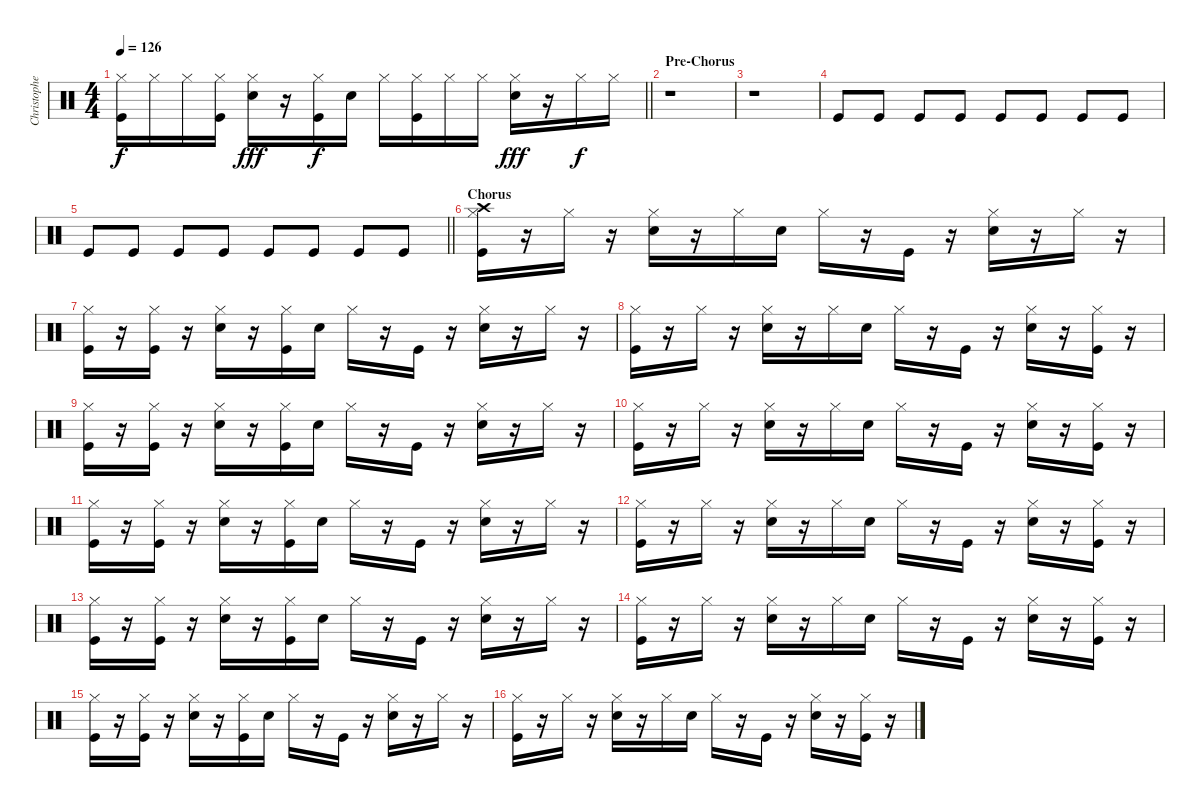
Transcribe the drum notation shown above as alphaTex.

\track ("Christopher - Drums" "Christophe") {instrument percussion}
\staff {score}
\articulation defaults
\ts (4 4)
\tempo 126
\clef neutral
\barLineRight lightlight
\ks c
("Hi-Hat (closed)" "Kick (hit)").16{dy f} "Hi-Hat (closed)".16 "Hi-Hat (closed)".16 ("Hi-Hat (closed)" "Kick (hit)").16 ("Hi-Hat (closed)" "Snare (hit) 2").16{dy fff} r.16 ("Hi-Hat (closed)" "Kick (hit)").16{dy f} "Snare (hit) 2".16 "Hi-Hat (closed)".16 ("Hi-Hat (closed)" "Kick (hit)").16 "Hi-Hat (closed)".16 "Hi-Hat (closed)".16 ("Hi-Hat (closed)" "Snare (hit) 2").16{dy fff} r.16 "Hi-Hat (closed)".16{dy f} "Hi-Hat (closed)".16 |
\section ("" "Pre-Chorus")
r.1 |
r.1 |
"Kick (hit)".8 "Kick (hit)".8 "Kick (hit)".8 "Kick (hit)".8 "Kick (hit)".8 "Kick (hit)".8 "Kick (hit)".8 "Kick (hit)".8 |
\barLineRight lightlight "Kick (hit)".8 "Kick (hit)".8 "Kick (hit)".8 "Kick (hit)".8 "Kick (hit)".8 "Kick (hit)".8 "Kick (hit)".8 "Kick (hit)".8
|
\section ("" "Chorus")
("Crash high (hit)" "Hi-Hat (closed)" "Kick (hit)").16 r.16 "Hi-Hat (closed)".16 r.16 ("Hi-Hat (closed)" "Snare (hit) 2").16 r.16 "Hi-Hat (closed)".16 "Snare (hit) 2".16 "Hi-Hat (closed)".16 r.16 "Kick (hit)".16 r.16 ("Hi-Hat (closed)" "Snare (hit) 2").16 r.16 "Hi-Hat (closed)".16 r.16 |
("Hi-Hat (closed)" "Kick (hit)").16 r.16 ("Hi-Hat (closed)" "Kick (hit)").16 r.16 ("Hi-Hat (closed)" "Snare (hit) 2").16 r.16 ("Hi-Hat (closed)" "Kick (hit)").16 "Snare (hit) 2".16 "Hi-Hat (closed)".16 r.16 "Kick (hit)".16 r.16 ("Hi-Hat (closed)" "Snare (hit) 2").16 r.16 "Hi-Hat (closed)".16 r.16 |
("Hi-Hat (closed)" "Kick (hit)").16 r.16 "Hi-Hat (closed)".16 r.16 ("Hi-Hat (closed)" "Snare (hit) 2").16 r.16 "Hi-Hat (closed)".16 "Snare (hit) 2".16 "Hi-Hat (closed)".16 r.16 "Kick (hit)".16 r.16 ("Hi-Hat (closed)" "Snare (hit) 2").16 r.16 ("Hi-Hat (closed)" "Kick (hit)").16 r.16 |
("Hi-Hat (closed)" "Kick (hit)").16 r.16 ("Hi-Hat (closed)" "Kick (hit)").16 r.16 ("Hi-Hat (closed)" "Snare (hit) 2").16 r.16 ("Hi-Hat (closed)" "Kick (hit)").16 "Snare (hit) 2".16 "Hi-Hat (closed)".16 r.16 "Kick (hit)".16 r.16 ("Hi-Hat (closed)" "Snare (hit) 2").16 r.16 "Hi-Hat (closed)".16 r.16 |
("Hi-Hat (closed)" "Kick (hit)").16 r.16 "Hi-Hat (closed)".16 r.16 ("Hi-Hat (closed)" "Snare (hit) 2").16 r.16 "Hi-Hat (closed)".16 "Snare (hit) 2".16 "Hi-Hat (closed)".16 r.16 "Kick (hit)".16 r.16 ("Hi-Hat (closed)" "Snare (hit) 2").16 r.16 ("Hi-Hat (closed)" "Kick (hit)").16 r.16 |
("Hi-Hat (closed)" "Kick (hit)").16 r.16 ("Hi-Hat (closed)" "Kick (hit)").16 r.16 ("Hi-Hat (closed)" "Snare (hit) 2").16 r.16 ("Hi-Hat (closed)" "Kick (hit)").16 "Snare (hit) 2".16 "Hi-Hat (closed)".16 r.16 "Kick (hit)".16 r.16 ("Hi-Hat (closed)" "Snare (hit) 2").16 r.16 "Hi-Hat (closed)".16 r.16 |
("Hi-Hat (closed)" "Kick (hit)").16 r.16 "Hi-Hat (closed)".16 r.16 ("Hi-Hat (closed)" "Snare (hit) 2").16 r.16 "Hi-Hat (closed)".16 "Snare (hit) 2".16 "Hi-Hat (closed)".16 r.16 "Kick (hit)".16 r.16 ("Hi-Hat (closed)" "Snare (hit) 2").16 r.16 ("Hi-Hat (closed)" "Kick (hit)").16 r.16 |
("Hi-Hat (closed)" "Kick (hit)").16 r.16 ("Hi-Hat (closed)" "Kick (hit)").16 r.16 ("Hi-Hat (closed)" "Snare (hit) 2").16 r.16 ("Hi-Hat (closed)" "Kick (hit)").16 "Snare (hit) 2".16 "Hi-Hat (closed)".16 r.16 "Kick (hit)".16 r.16 ("Hi-Hat (closed)" "Snare (hit) 2").16 r.16 "Hi-Hat (closed)".16 r.16 |
("Hi-Hat (closed)" "Kick (hit)").16 r.16 "Hi-Hat (closed)".16 r.16 ("Hi-Hat (closed)" "Snare (hit) 2").16 r.16 "Hi-Hat (closed)".16 "Snare (hit) 2".16 "Hi-Hat (closed)".16 r.16 "Kick (hit)".16 r.16 ("Hi-Hat (closed)" "Snare (hit) 2").16 r.16 ("Hi-Hat (closed)" "Kick (hit)").16 r.16 |
("Hi-Hat (closed)" "Kick (hit)").16 r.16 ("Hi-Hat (closed)" "Kick (hit)").16 r.16 ("Hi-Hat (closed)" "Snare (hit) 2").16 r.16 ("Hi-Hat (closed)" "Kick (hit)").16 "Snare (hit) 2".16 "Hi-Hat (closed)".16 r.16 "Kick (hit)".16 r.16 ("Hi-Hat (closed)" "Snare (hit) 2").16 r.16 "Hi-Hat (closed)".16 r.16 |
("Hi-Hat (closed)" "Kick (hit)").16 r.16 "Hi-Hat (closed)".16 r.16 ("Hi-Hat (closed)" "Snare (hit) 2").16 r.16 "Hi-Hat (closed)".16 "Snare (hit) 2".16 "Hi-Hat (closed)".16 r.16 "Kick (hit)".16 r.16 ("Hi-Hat (closed)" "Snare (hit) 2").16 r.16 ("Hi-Hat (closed)" "Kick (hit)").16 r.16
